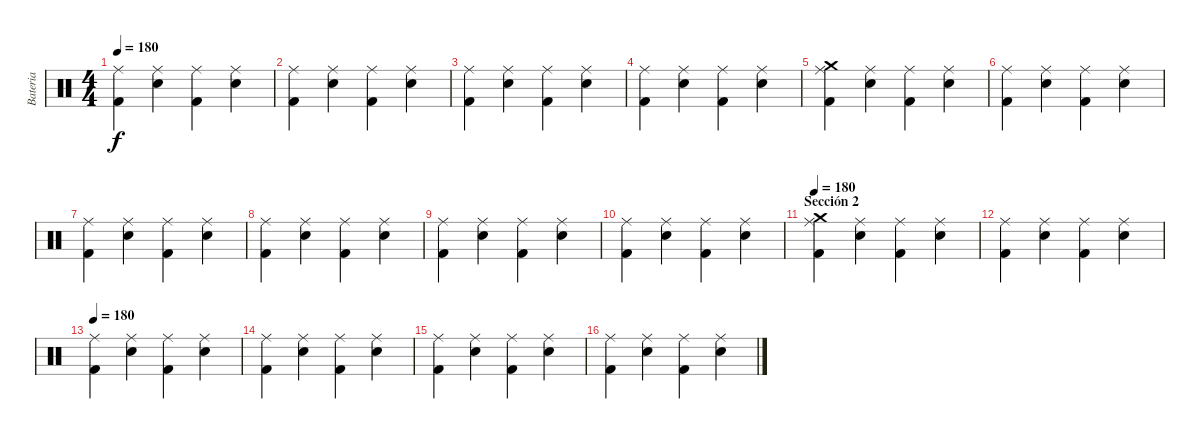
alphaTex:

\track ("Bateria" "Bateria") {instrument percussion}
\staff {score}
\articulation defaults
\ts (4 4)
\tempo 180
\clef neutral
\ks c
("Ride (middle)" "Kick (hit) 2").4{dy f} ("Ride (middle)" "Snare (hit) 2").4 ("Ride (middle)" "Kick (hit) 2").4 ("Ride (middle)" "Snare (hit) 2").4 |
("Ride (middle)" "Kick (hit) 2").4 ("Ride (middle)" "Snare (hit) 2").4 ("Ride (middle)" "Kick (hit) 2").4 ("Ride (middle)" "Snare (hit) 2").4 |
("Ride (middle)" "Kick (hit) 2").4 ("Ride (middle)" "Snare (hit) 2").4 ("Ride (middle)" "Kick (hit) 2").4 ("Ride (middle)" "Snare (hit) 2").4 |
("Ride (middle)" "Kick (hit) 2").4 ("Ride (middle)" "Snare (hit) 2").4 ("Ride (middle)" "Kick (hit) 2").4 ("Ride (middle)" "Snare (hit) 2").4 |
("Crash medium (hit)" "Ride (middle)" "Kick (hit) 2").4 ("Ride (middle)" "Snare (hit) 2").4 ("Ride (middle)" "Kick (hit) 2").4 ("Ride (middle)" "Snare (hit) 2").4 |
("Ride (middle)" "Kick (hit) 2").4 ("Ride (middle)" "Snare (hit) 2").4 ("Ride (middle)" "Kick (hit) 2").4 ("Ride (middle)" "Snare (hit) 2").4 |
("Ride (middle)" "Kick (hit) 2").4 ("Ride (middle)" "Snare (hit) 2").4 ("Ride (middle)" "Kick (hit) 2").4 ("Ride (middle)" "Snare (hit) 2").4 |
("Ride (middle)" "Kick (hit) 2").4 ("Ride (middle)" "Snare (hit) 2").4 ("Ride (middle)" "Kick (hit) 2").4 ("Ride (middle)" "Snare (hit) 2").4 |
("Ride (middle)" "Kick (hit) 2").4 ("Ride (middle)" "Snare (hit) 2").4 ("Ride (middle)" "Kick (hit) 2").4 ("Ride (middle)" "Snare (hit) 2").4 |
("Ride (middle)" "Kick (hit) 2").4 ("Ride (middle)" "Snare (hit) 2").4 ("Ride (middle)" "Kick (hit) 2").4 ("Ride (middle)" "Snare (hit) 2").4 |
\section ("" "Sección 2")
\tempo 180
("Crash medium (hit)" "Ride (middle)" "Kick (hit) 2").4 ("Ride (middle)" "Snare (hit) 2").4 ("Ride (middle)" "Kick (hit) 2").4 ("Ride (middle)" "Snare (hit) 2").4 |
("Ride (middle)" "Kick (hit) 2").4 ("Ride (middle)" "Snare (hit) 2").4 ("Ride (middle)" "Kick (hit) 2").4 ("Ride (middle)" "Snare (hit) 2").4 |
\tempo 180
("Ride (middle)" "Kick (hit) 2").4 ("Ride (middle)" "Snare (hit) 2").4 ("Ride (middle)" "Kick (hit) 2").4 ("Ride (middle)" "Snare (hit) 2").4 |
("Ride (middle)" "Kick (hit) 2").4 ("Ride (middle)" "Snare (hit) 2").4 ("Ride (middle)" "Kick (hit) 2").4 ("Ride (middle)" "Snare (hit) 2").4 |
("Ride (middle)" "Kick (hit) 2").4 ("Ride (middle)" "Snare (hit) 2").4 ("Ride (middle)" "Kick (hit) 2").4 ("Ride (middle)" "Snare (hit) 2").4 |
("Ride (middle)" "Kick (hit) 2").4 ("Ride (middle)" "Snare (hit) 2").4 ("Ride (middle)" "Kick (hit) 2").4 ("Ride (middle)" "Snare (hit) 2").4
